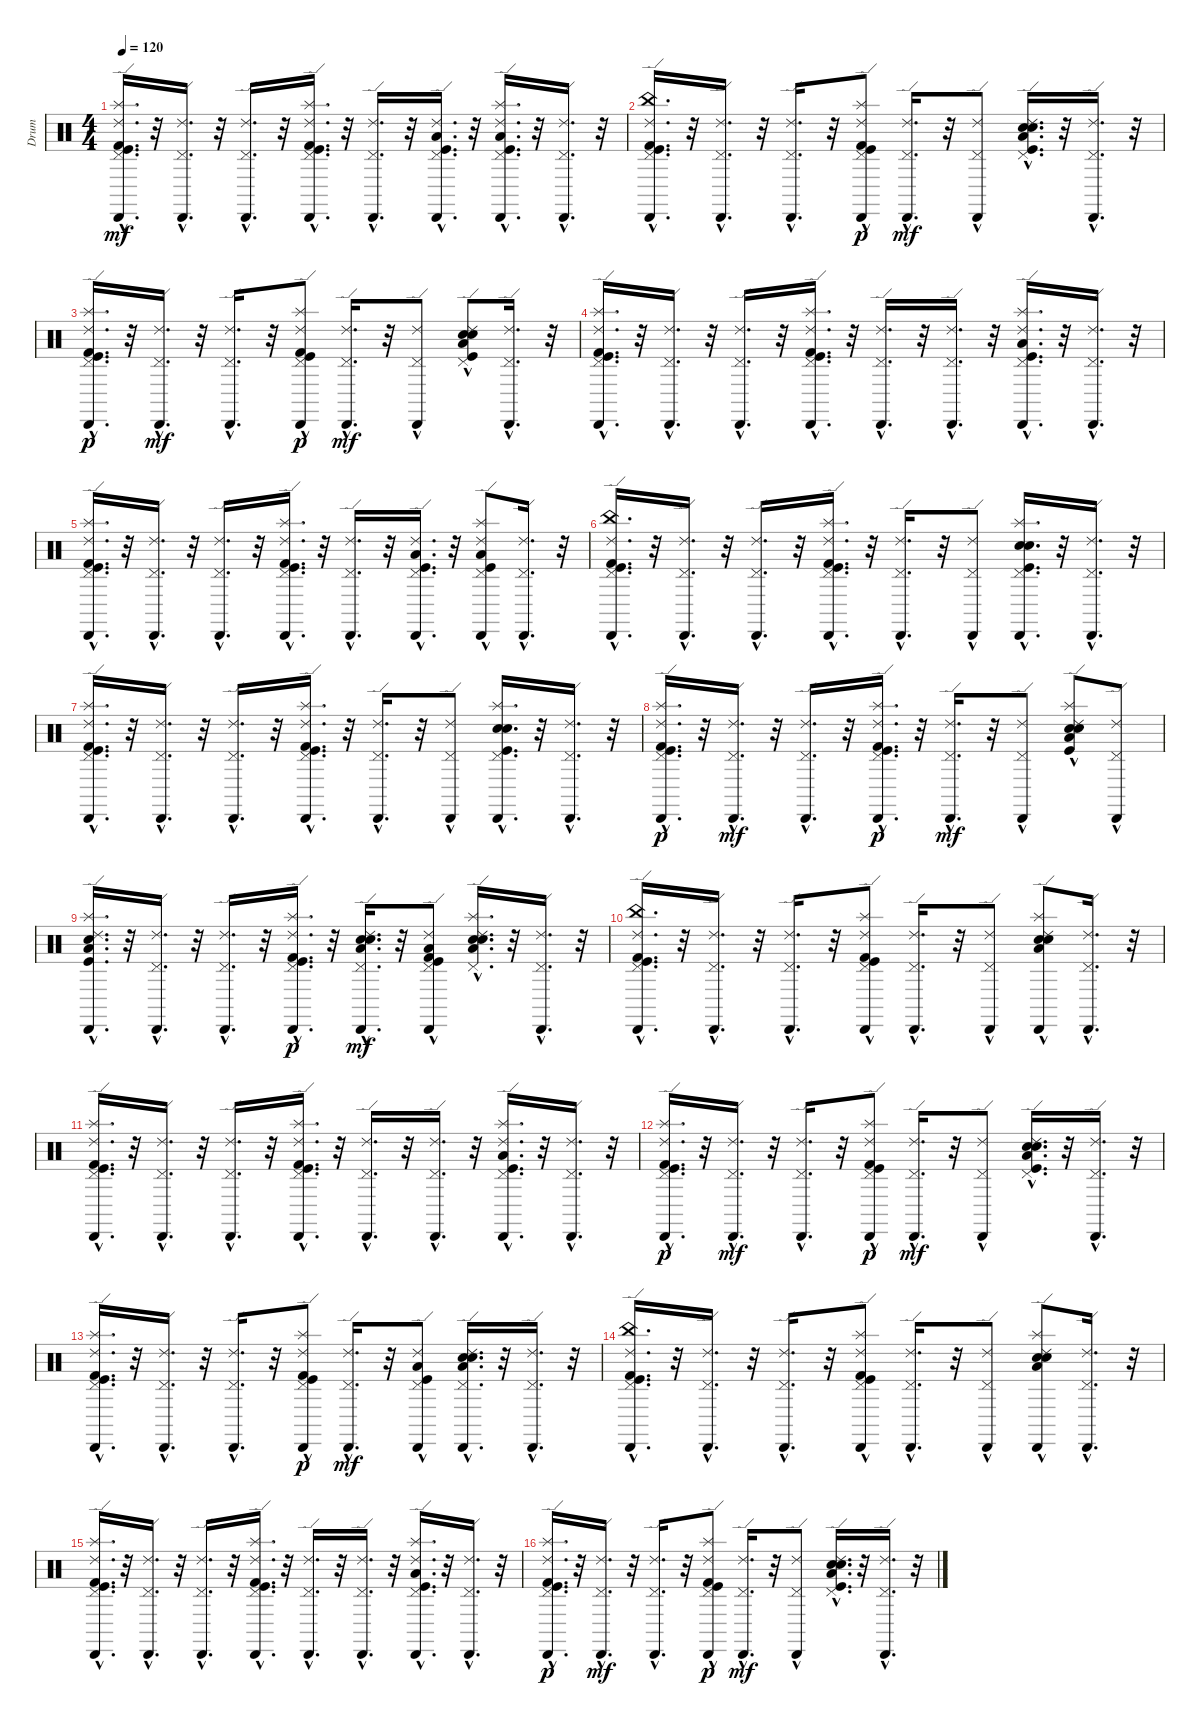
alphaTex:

\track ("Drum" "Drum") {instrument percussion}
\staff {score}
\articulation defaults
\ts (4 4)
\tempo 120
\clef neutral
\ks c
("Splash (hit)"{hac} "Kick (hit) 2"{hac} "Cabasa (hit)"{hac} "Pedal Hi-Hat (hit)"{hac} "Kick (hit)"{hac} "Ride (edge) 2"{hac}).16{d dy mf} r.32 ("Cabasa (hit)"{hac} "Pedal Hi-Hat (hit)"{hac} "Ride (edge) 2"{hac}).16{d} r.32 ("Cabasa (hit)"{hac} "Pedal Hi-Hat (hit)"{hac} "Ride (edge) 2"{hac}).16{d} r.32 ("Splash (hit)"{hac} "Kick (hit) 2"{hac} "Cabasa (hit)"{hac} "Pedal Hi-Hat (hit)"{hac} "Kick (hit)"{hac} "Ride (edge) 2"{hac}).16{d} r.32 ("Cabasa (hit)"{hac} "Pedal Hi-Hat (hit)"{hac} "Ride (edge) 2"{hac}).16{d} r.32 ("Cabasa (hit)"{hac} "Pedal Hi-Hat (hit)"{hac} "Ride (edge) 2"{hac} "Kick (hit)"{hac} "Low Tom (hit)"{hac}).16{d} r.32 ("Splash (hit)"{hac} "Cabasa (hit)"{hac} "Pedal Hi-Hat (hit)"{hac} "Kick (hit)"{hac} "Low Tom (hit)"{hac} "Ride (edge) 2"{hac}).16{d} r.32 ("Cabasa (hit)"{hac} "Pedal Hi-Hat (hit)"{hac} "Ride (edge) 2"{hac}).16{d} r.32 |
("China (hit)"{hac} "Pedal Hi-Hat (hit)"{hac} "Kick (hit)"{hac} "Ride (edge) 2"{hac} "Cabasa (hit)"{hac} "Kick (hit) 2"{hac}).16{d} r.32 ("Pedal Hi-Hat (hit)"{hac} "Ride (edge) 2"{hac} "Cabasa (hit)"{hac}).16{d} r.32 ("Pedal Hi-Hat (hit)"{hac} "Ride (edge) 2"{hac} "Cabasa (hit)"{hac}).16{d} r.32 ("Pedal Hi-Hat (hit)"{hac} "Kick (hit)"{hac} "Ride (edge) 2"{hac} "Cabasa (hit)"{hac} "Kick (hit) 2"{hac} "Splash (hit)"{hac}).8{dy p} ("Pedal Hi-Hat (hit)"{hac} "Ride (edge) 2"{hac} "Cabasa (hit)"{hac}).16{d dy mf} r.32 ("Pedal Hi-Hat (hit)"{hac} "Ride (edge) 2"{hac} "Cabasa (hit)"{hac}).8 ("Pedal Hi-Hat (hit)"{hac} "Kick (hit)"{hac} "Low Tom (hit)"{hac} "Ride (edge) 2"{hac} "Snare (hit) 2"{hac} "Electric Snare (hit)"{hac}).16{d} r.32 ("Pedal Hi-Hat (hit)"{hac} "Ride (edge) 2"{hac} "Cabasa (hit)"{hac}).16{d} r.32 |
("Ride (edge) 2"{hac} "Kick (hit)"{hac} "Pedal Hi-Hat (hit)"{hac} "Cabasa (hit)"{hac} "Kick (hit) 2"{hac} "Splash (hit)"{hac}).16{d dy p} r.32 ("Ride (edge) 2"{hac} "Pedal Hi-Hat (hit)"{hac} "Cabasa (hit)"{hac}).16{d dy mf} r.32 ("Ride (edge) 2"{hac} "Pedal Hi-Hat (hit)"{hac} "Cabasa (hit)"{hac}).16{d} r.32 ("Ride (edge) 2"{hac} "Kick (hit)"{hac} "Pedal Hi-Hat (hit)"{hac} "Cabasa (hit)"{hac} "Kick (hit) 2"{hac} "Splash (hit)"{hac}).8{dy p} ("Ride (edge) 2"{hac} "Pedal Hi-Hat (hit)"{hac} "Cabasa (hit)"{hac}).16{d dy mf} r.32 ("Ride (edge) 2"{hac} "Pedal Hi-Hat (hit)"{hac} "Cabasa (hit)"{hac}).8 ("Electric Snare (hit)" "Snare (hit) 2" "Ride (edge) 2"{hac} "Low Tom (hit)"{hac} "Kick (hit)"{hac} "Pedal Hi-Hat (hit)"{hac}).8 ("Ride (edge) 2"{hac} "Pedal Hi-Hat (hit)"{hac} "Cabasa (hit)"{hac}).16{d} r.32 |
("Splash (hit)"{hac} "Kick (hit) 2"{hac} "Cabasa (hit)"{hac} "Pedal Hi-Hat (hit)"{hac} "Kick (hit)"{hac} "Ride (edge) 2"{hac}).16{d} r.32 ("Cabasa (hit)"{hac} "Pedal Hi-Hat (hit)"{hac} "Ride (edge) 2"{hac}).16{d} r.32 ("Cabasa (hit)"{hac} "Pedal Hi-Hat (hit)"{hac} "Ride (edge) 2"{hac}).16{d} r.32 ("Splash (hit)"{hac} "Kick (hit) 2"{hac} "Cabasa (hit)"{hac} "Pedal Hi-Hat (hit)"{hac} "Kick (hit)"{hac} "Ride (edge) 2"{hac}).16{d} r.32 ("Cabasa (hit)"{hac} "Pedal Hi-Hat (hit)"{hac} "Ride (edge) 2"{hac}).16{d} r.32 ("Cabasa (hit)"{hac} "Pedal Hi-Hat (hit)"{hac} "Ride (edge) 2"{hac}).16{d} r.32 ("Splash (hit)"{hac} "Cabasa (hit)"{hac} "Pedal Hi-Hat (hit)"{hac} "Kick (hit)"{hac} "Low Tom (hit)"{hac} "Ride (edge) 2"{hac}).16{d} r.32 ("Cabasa (hit)"{hac} "Pedal Hi-Hat (hit)"{hac} "Ride (edge) 2"{hac}).16{d} r.32 |
("Splash (hit)"{hac} "Kick (hit) 2"{hac} "Cabasa (hit)"{hac} "Pedal Hi-Hat (hit)"{hac} "Kick (hit)"{hac} "Ride (edge) 2"{hac}).16{d} r.32 ("Cabasa (hit)"{hac} "Pedal Hi-Hat (hit)"{hac} "Ride (edge) 2"{hac}).16{d} r.32 ("Cabasa (hit)"{hac} "Pedal Hi-Hat (hit)"{hac} "Ride (edge) 2"{hac}).16{d} r.32 ("Splash (hit)"{hac} "Kick (hit) 2"{hac} "Cabasa (hit)"{hac} "Pedal Hi-Hat (hit)"{hac} "Kick (hit)"{hac} "Ride (edge) 2"{hac}).16{d} r.32 ("Cabasa (hit)"{hac} "Pedal Hi-Hat (hit)"{hac} "Ride (edge) 2"{hac}).16{d} r.32 ("Cabasa (hit)"{hac} "Pedal Hi-Hat (hit)"{hac} "Ride (edge) 2"{hac} "Kick (hit)"{hac} "Low Tom (hit)"{hac}).16{d} r.32 ("Splash (hit)"{hac} "Cabasa (hit)"{hac} "Pedal Hi-Hat (hit)"{hac} "Kick (hit)"{hac} "Low Tom (hit)" "Ride (edge) 2"{hac}).8 ("Cabasa (hit)"{hac} "Pedal Hi-Hat (hit)"{hac} "Ride (edge) 2"{hac}).16{d} r.32 |
("Kick (hit) 2"{hac} "Ride (edge) 2"{hac} "Cabasa (hit)"{hac} "China (hit)"{hac} "Kick (hit)"{hac} "Pedal Hi-Hat (hit)"{hac}).16{d} r.32 ("Cabasa (hit)"{hac} "Ride (edge) 2"{hac} "Pedal Hi-Hat (hit)"{hac}).16{d} r.32 ("Cabasa (hit)"{hac} "Ride (edge) 2"{hac} "Pedal Hi-Hat (hit)"{hac}).16{d} r.32 ("Splash (hit)"{hac} "Cabasa (hit)"{hac} "Kick (hit) 2"{hac} "Ride (edge) 2"{hac} "Kick (hit)"{hac} "Pedal Hi-Hat (hit)"{hac}).16{d} r.32 ("Cabasa (hit)"{hac} "Ride (edge) 2"{hac} "Pedal Hi-Hat (hit)"{hac}).16{d} r.32 ("Pedal Hi-Hat (hit)"{hac} "Cabasa (hit)"{hac} "Ride (edge) 2"{hac}).8 ("Splash (hit)"{hac} "Cabasa (hit)"{hac} "Pedal Hi-Hat (hit)"{hac} "Kick (hit)"{hac} "Electric Snare (hit)"{hac} "Snare (hit) 2"{hac}).16{d} r.32 ("Cabasa (hit)"{hac} "Ride (edge) 2"{hac} "Pedal Hi-Hat (hit)"{hac}).16{d} r.32 |
("Splash (hit)"{hac} "Cabasa (hit)"{hac} "Kick (hit) 2"{hac} "Pedal Hi-Hat (hit)"{hac} "Kick (hit)"{hac} "Ride (edge) 2"{hac}).16{d} r.32 ("Cabasa (hit)"{hac} "Ride (edge) 2"{hac} "Pedal Hi-Hat (hit)"{hac}).16{d} r.32 ("Cabasa (hit)"{hac} "Pedal Hi-Hat (hit)"{hac} "Ride (edge) 2"{hac}).16{d} r.32 ("Splash (hit)"{hac} "Kick (hit) 2"{hac} "Pedal Hi-Hat (hit)"{hac} "Cabasa (hit)"{hac} "Kick (hit)"{hac} "Ride (edge) 2"{hac}).16{d} r.32 ("Cabasa (hit)"{hac} "Pedal Hi-Hat (hit)"{hac} "Ride (edge) 2"{hac}).16{d} r.32 ("Ride (edge) 2"{hac} "Cabasa (hit)"{hac} "Pedal Hi-Hat (hit)"{hac}).8 ("Splash (hit)"{hac} "Cabasa (hit)"{hac} "Electric Snare (hit)"{hac} "Snare (hit) 2"{hac} "Pedal Hi-Hat (hit)"{hac} "Kick (hit)"{hac}).16{d} r.32 ("Cabasa (hit)"{hac} "Pedal Hi-Hat (hit)"{hac} "Ride (edge) 2"{hac}).16{d} r.32 |
("Ride (edge) 2"{hac} "Pedal Hi-Hat (hit)"{hac} "Kick (hit)"{hac} "Cabasa (hit)"{hac} "Kick (hit) 2"{hac} "Splash (hit)"{hac}).16{d dy p} r.32 ("Pedal Hi-Hat (hit)"{hac} "Cabasa (hit)"{hac} "Ride (edge) 2"{hac}).16{d dy mf} r.32 ("Cabasa (hit)"{hac} "Ride (edge) 2"{hac} "Pedal Hi-Hat (hit)"{hac}).16{d} r.32 ("Ride (edge) 2"{hac} "Pedal Hi-Hat (hit)"{hac} "Kick (hit)"{hac} "Cabasa (hit)"{hac} "Kick (hit) 2"{hac} "Splash (hit)"{hac}).16{d dy p} r.32 ("Ride (edge) 2"{hac} "Pedal Hi-Hat (hit)"{hac} "Cabasa (hit)"{hac}).16{d dy mf} r.32 ("Cabasa (hit)"{hac} "Pedal Hi-Hat (hit)"{hac} "Ride (edge) 2"{hac}).8 ("Electric Snare (hit)" "Snare (hit) 2"{hac} "Splash (hit)"{hac} "Ride (edge) 2"{hac} "Low Tom (hit)"{hac} "Kick (hit)"{hac}).8 ("Cabasa (hit)"{hac} "Ride (edge) 2"{hac} "Pedal Hi-Hat (hit)"{hac}).8 |
("Splash (hit)"{hac} "Ride (edge) 2"{hac} "Snare (hit) 2"{hac} "Low Tom (hit)"{hac} "Cabasa (hit)"{hac} "Kick (hit)"{hac}).16{d} r.32 ("Pedal Hi-Hat (hit)"{hac} "Cabasa (hit)"{hac} "Ride (edge) 2"{hac}).16{d} r.32 ("Pedal Hi-Hat (hit)"{hac} "Cabasa (hit)"{hac} "Ride (edge) 2"{hac}).16{d} r.32 ("Pedal Hi-Hat (hit)"{hac} "Kick (hit) 2"{hac} "Kick (hit)"{hac} "Cabasa (hit)"{hac} "Ride (edge) 2"{hac} "Splash (hit)"{hac}).16{d dy p} r.32 ("Ride (edge) 2"{hac} "Pedal Hi-Hat (hit)"{hac} "Cabasa (hit)"{hac} "Low Tom (hit)"{hac} "Electric Snare (hit)"{hac} "Snare (hit) 2"{hac}).16{d dy mf} r.32 ("Pedal Hi-Hat (hit)"{hac} "Kick (hit)"{hac} "Low Tom (hit)"{hac} "Cabasa (hit)"{hac} "Kick (hit) 2"{hac} "Ride (edge) 2"{hac}).8 ("Ride (edge) 2"{hac} "Pedal Hi-Hat (hit)"{hac} "Splash (hit)"{hac} "Electric Snare (hit)"{hac} "Snare (hit) 2"{hac} "Low Tom (hit)"{hac}).16{d} r.32 ("Pedal Hi-Hat (hit)"{hac} "Cabasa (hit)"{hac} "Ride (edge) 2"{hac}).16{d} r.32 |
("Kick (hit) 2"{hac} "Cabasa (hit)"{hac} "Ride (edge) 2"{hac} "Kick (hit)"{hac} "Pedal Hi-Hat (hit)"{hac} "China (hit)"{hac}).16{d} r.32 ("Cabasa (hit)"{hac} "Ride (edge) 2"{hac} "Pedal Hi-Hat (hit)"{hac}).16{d} r.32 ("Cabasa (hit)"{hac} "Ride (edge) 2"{hac} "Pedal Hi-Hat (hit)"{hac}).16{d} r.32 ("Splash (hit)"{hac} "Kick (hit) 2"{hac} "Cabasa (hit)"{hac} "Ride (edge) 2"{hac} "Kick (hit)"{hac} "Pedal Hi-Hat (hit)"{hac}).8 ("Cabasa (hit)"{hac} "Ride (edge) 2"{hac} "Pedal Hi-Hat (hit)"{hac}).16{d} r.32 ("Cabasa (hit)"{hac} "Ride (edge) 2"{hac} "Pedal Hi-Hat (hit)"{hac}).8 ("Splash (hit)"{hac} "Cabasa (hit)"{hac} "Electric Snare (hit)" "Snare (hit) 2" "Ride (edge) 2"{hac} "Low Tom (hit)"{hac}).8 ("Cabasa (hit)"{hac} "Ride (edge) 2"{hac} "Pedal Hi-Hat (hit)"{hac}).16{d} r.32 |
("Splash (hit)"{hac} "Kick (hit) 2"{hac} "Cabasa (hit)"{hac} "Pedal Hi-Hat (hit)"{hac} "Kick (hit)"{hac} "Ride (edge) 2"{hac}).16{d} r.32 ("Cabasa (hit)"{hac} "Pedal Hi-Hat (hit)"{hac} "Ride (edge) 2"{hac}).16{d} r.32 ("Cabasa (hit)"{hac} "Pedal Hi-Hat (hit)"{hac} "Ride (edge) 2"{hac}).16{d} r.32 ("Splash (hit)"{hac} "Kick (hit) 2"{hac} "Cabasa (hit)"{hac} "Pedal Hi-Hat (hit)"{hac} "Kick (hit)"{hac} "Ride (edge) 2"{hac}).16{d} r.32 ("Cabasa (hit)"{hac} "Pedal Hi-Hat (hit)"{hac} "Ride (edge) 2"{hac}).16{d} r.32 ("Cabasa (hit)"{hac} "Pedal Hi-Hat (hit)"{hac} "Ride (edge) 2"{hac}).16{d} r.32 ("Splash (hit)"{hac} "Cabasa (hit)"{hac} "Pedal Hi-Hat (hit)"{hac} "Kick (hit)"{hac} "Low Tom (hit)"{hac} "Ride (edge) 2"{hac}).16{d} r.32 ("Cabasa (hit)"{hac} "Pedal Hi-Hat (hit)"{hac} "Ride (edge) 2"{hac}).16{d} r.32 |
("Ride (edge) 2"{hac} "Kick (hit)"{hac} "Pedal Hi-Hat (hit)"{hac} "Cabasa (hit)"{hac} "Kick (hit) 2"{hac} "Splash (hit)"{hac}).16{d dy p} r.32 ("Ride (edge) 2"{hac} "Pedal Hi-Hat (hit)"{hac} "Cabasa (hit)"{hac}).16{d dy mf} r.32 ("Ride (edge) 2"{hac} "Pedal Hi-Hat (hit)"{hac} "Cabasa (hit)"{hac}).16{d} r.32 ("Ride (edge) 2"{hac} "Kick (hit)"{hac} "Pedal Hi-Hat (hit)"{hac} "Cabasa (hit)"{hac} "Kick (hit) 2"{hac} "Splash (hit)"{hac}).8{dy p} ("Ride (edge) 2"{hac} "Pedal Hi-Hat (hit)"{hac} "Cabasa (hit)"{hac}).16{d dy mf} r.32 ("Ride (edge) 2"{hac} "Pedal Hi-Hat (hit)"{hac} "Cabasa (hit)"{hac}).8 ("Electric Snare (hit)"{hac} "Snare (hit) 2"{hac} "Ride (edge) 2"{hac} "Low Tom (hit)"{hac} "Kick (hit)"{hac} "Pedal Hi-Hat (hit)"{hac}).16{d} r.32 ("Ride (edge) 2"{hac} "Pedal Hi-Hat (hit)"{hac} "Cabasa (hit)"{hac}).16{d} r.32 |
("Cabasa (hit)"{hac} "Ride (edge) 2"{hac} "Pedal Hi-Hat (hit)"{hac} "Kick (hit)"{hac} "Splash (hit)"{hac} "Kick (hit) 2"{hac}).16{d} r.32 ("Pedal Hi-Hat (hit)"{hac} "Ride (edge) 2"{hac} "Cabasa (hit)"{hac}).16{d} r.32 ("Ride (edge) 2"{hac} "Pedal Hi-Hat (hit)"{hac} "Cabasa (hit)"{hac}).16{d} r.32 ("Ride (edge) 2"{hac} "Cabasa (hit)"{hac} "Pedal Hi-Hat (hit)"{hac} "Kick (hit)"{hac} "Kick (hit) 2"{hac} "Splash (hit)"{hac}).8{dy p} ("Pedal Hi-Hat (hit)"{hac} "Cabasa (hit)"{hac} "Ride (edge) 2"{hac}).16{d dy mf} r.32 ("Low Tom (hit)"{hac} "Cabasa (hit)"{hac} "Ride (edge) 2"{hac} "Pedal Hi-Hat (hit)"{hac} "Kick (hit)"{hac}).8 ("Low Tom (hit)"{hac} "Electric Snare (hit)"{hac} "Ride (edge) 2"{hac} "Snare (hit) 2"{hac} "Cabasa (hit)"{hac} "Pedal Hi-Hat (hit)"{hac}).16{d} r.32 ("Cabasa (hit)"{hac} "Pedal Hi-Hat (hit)"{hac} "Ride (edge) 2"{hac}).16{d} r.32 |
("Kick (hit) 2"{hac} "Cabasa (hit)"{hac} "Ride (edge) 2"{hac} "Kick (hit)"{hac} "Pedal Hi-Hat (hit)"{hac} "China (hit)"{hac}).16{d} r.32 ("Cabasa (hit)"{hac} "Ride (edge) 2"{hac} "Pedal Hi-Hat (hit)"{hac}).16{d} r.32 ("Cabasa (hit)"{hac} "Ride (edge) 2"{hac} "Pedal Hi-Hat (hit)"{hac}).16{d} r.32 ("Splash (hit)"{hac} "Kick (hit) 2"{hac} "Cabasa (hit)"{hac} "Ride (edge) 2"{hac} "Kick (hit)"{hac} "Pedal Hi-Hat (hit)"{hac}).8 ("Cabasa (hit)"{hac} "Ride (edge) 2"{hac} "Pedal Hi-Hat (hit)"{hac}).16{d} r.32 ("Cabasa (hit)"{hac} "Ride (edge) 2"{hac} "Pedal Hi-Hat (hit)"{hac}).8 ("Splash (hit)"{hac} "Cabasa (hit)"{hac} "Electric Snare (hit)" "Snare (hit) 2" "Ride (edge) 2"{hac} "Low Tom (hit)"{hac}).8 ("Cabasa (hit)"{hac} "Ride (edge) 2"{hac} "Pedal Hi-Hat (hit)"{hac}).16{d} r.32 |
("Splash (hit)"{hac} "Kick (hit) 2"{hac} "Cabasa (hit)"{hac} "Pedal Hi-Hat (hit)"{hac} "Kick (hit)"{hac} "Ride (edge) 2"{hac}).16{d} r.32 ("Cabasa (hit)"{hac} "Pedal Hi-Hat (hit)"{hac} "Ride (edge) 2"{hac}).16{d} r.32 ("Cabasa (hit)"{hac} "Pedal Hi-Hat (hit)"{hac} "Ride (edge) 2"{hac}).16{d} r.32 ("Splash (hit)"{hac} "Kick (hit) 2"{hac} "Cabasa (hit)"{hac} "Pedal Hi-Hat (hit)"{hac} "Kick (hit)"{hac} "Ride (edge) 2"{hac}).16{d} r.32 ("Cabasa (hit)"{hac} "Pedal Hi-Hat (hit)"{hac} "Ride (edge) 2"{hac}).16{d} r.32 ("Cabasa (hit)"{hac} "Pedal Hi-Hat (hit)"{hac} "Ride (edge) 2"{hac}).16{d} r.32 ("Splash (hit)"{hac} "Cabasa (hit)"{hac} "Pedal Hi-Hat (hit)"{hac} "Kick (hit)"{hac} "Low Tom (hit)"{hac} "Ride (edge) 2"{hac}).16{d} r.32 ("Cabasa (hit)"{hac} "Pedal Hi-Hat (hit)"{hac} "Ride (edge) 2"{hac}).16{d} r.32 |
("Ride (edge) 2"{hac} "Kick (hit)"{hac} "Pedal Hi-Hat (hit)"{hac} "Cabasa (hit)"{hac} "Kick (hit) 2"{hac} "Splash (hit)"{hac}).16{d dy p} r.32 ("Ride (edge) 2"{hac} "Pedal Hi-Hat (hit)"{hac} "Cabasa (hit)"{hac}).16{d dy mf} r.32 ("Ride (edge) 2"{hac} "Pedal Hi-Hat (hit)"{hac} "Cabasa (hit)"{hac}).16{d} r.32 ("Ride (edge) 2"{hac} "Kick (hit)"{hac} "Pedal Hi-Hat (hit)"{hac} "Cabasa (hit)"{hac} "Kick (hit) 2"{hac} "Splash (hit)"{hac}).8{dy p} ("Ride (edge) 2"{hac} "Pedal Hi-Hat (hit)"{hac} "Cabasa (hit)"{hac}).16{d dy mf} r.32 ("Ride (edge) 2"{hac} "Pedal Hi-Hat (hit)"{hac} "Cabasa (hit)"{hac}).8 ("Electric Snare (hit)"{hac} "Snare (hit) 2"{hac} "Ride (edge) 2"{hac} "Low Tom (hit)"{hac} "Kick (hit)"{hac} "Pedal Hi-Hat (hit)"{hac}).16{d} r.32 ("Ride (edge) 2"{hac} "Pedal Hi-Hat (hit)"{hac} "Cabasa (hit)"{hac}).16{d} r.32
